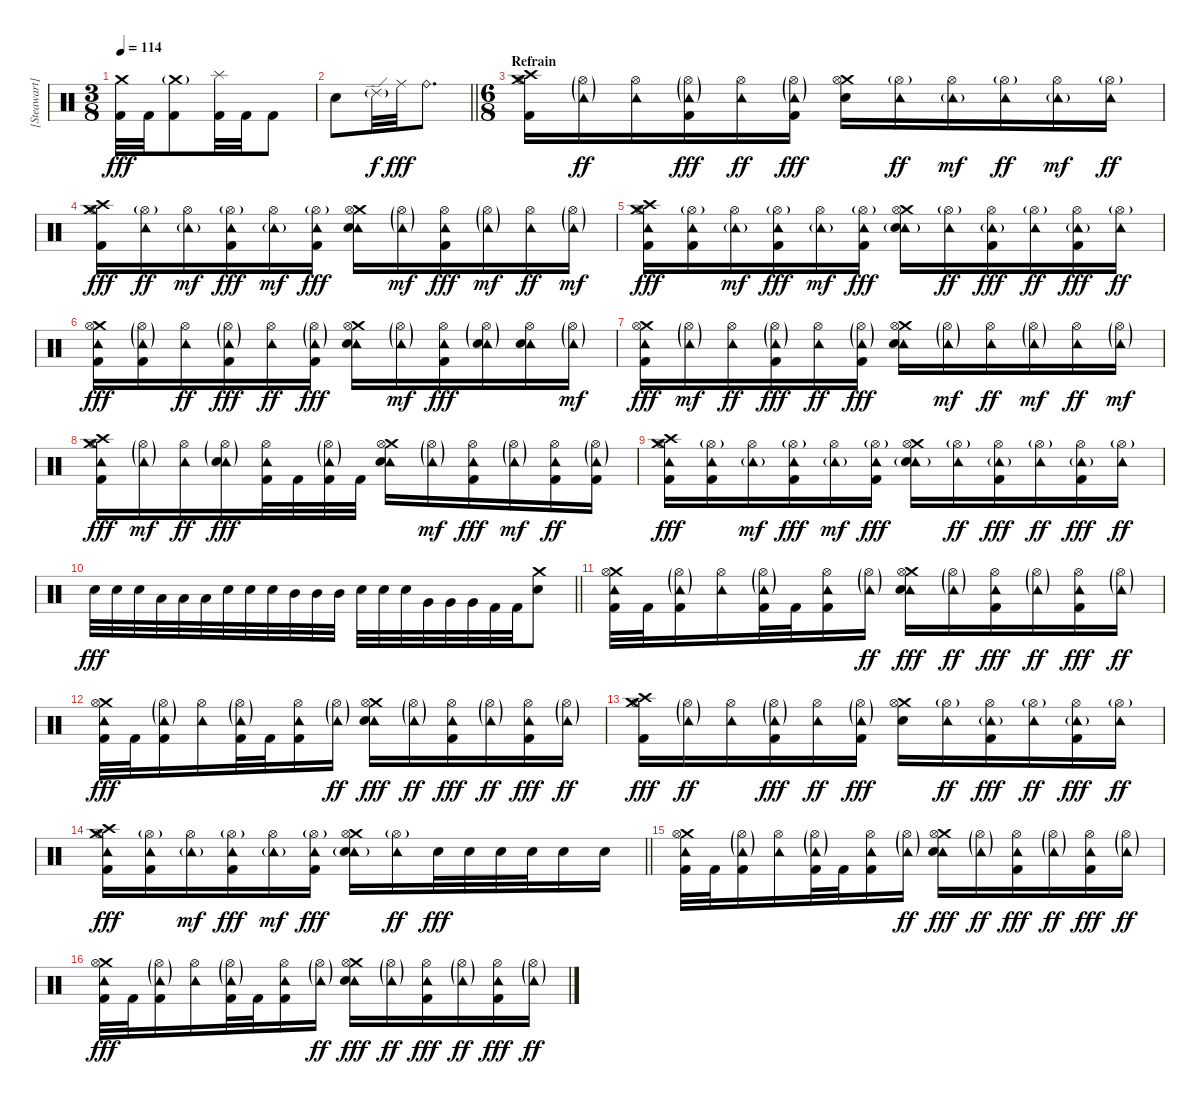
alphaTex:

\track ("[Steawart] Drums" "[Steawart]") {solo instrument percussion}
\staff {score}
\articulation defaults
\ts (3 8)
\tempo 114
\clef neutral
\ks c
("Crash medium (hit)" "Kick (hit) 2").32{dy fff} "Kick (hit) 2".32 ("Crash medium (hit)"{g} "Kick (hit) 2").8 ("Splash (hit)" "Kick (hit) 2").32 "Kick (hit) 2".32 "Kick (hit) 2".8 |
\barLineRight lightlight "Electric Snare (hit)".8 "Ride (edge) 2"{g}.32{dy f} "Ride (middle)".32{dy fff} "Ride (bell)".8{d}
|
\ts (6 8)
\section ("" "Refrain ")
("Crash medium (hit)" "Hi-Hat (open)" "Crash high (hit)" "Kick (hit) 2").16 ("Hi-Hat (open)"{g} "Tambourine (hit)"{g}).16{dy ff} ("Hi-Hat (open)" "Tambourine (hit)").16 ("Hi-Hat (open)"{g} "Tambourine (hit)"{g} "Kick (hit) 2").16{dy fff} ("Hi-Hat (open)" "Tambourine (hit)").16{dy ff} ("Hi-Hat (open)"{g} "Tambourine (hit)"{g} "Kick (hit) 2").16{dy fff} ("Crash medium (hit)" "Hi-Hat (open)" "Electric Snare (hit)").16 ("Hi-Hat (open)"{g} "Tambourine (hit)").16{dy ff} ("Hi-Hat (open)" "Tambourine (hit)"{g}).16{dy mf} ("Hi-Hat (open)"{g} "Tambourine (hit)").16{dy ff} ("Hi-Hat (open)" "Tambourine (hit)"{g}).16{dy mf} ("Hi-Hat (open)"{g} "Tambourine (hit)").16{dy ff} |
("Crash medium (hit)" "Hi-Hat (open)" "Crash high (hit)" "Kick (hit) 2").16{dy fff} ("Hi-Hat (open)"{g} "Tambourine (hit)").16{dy ff} ("Hi-Hat (open)" "Tambourine (hit)"{g}).16{dy mf} ("Hi-Hat (open)"{g} "Tambourine (hit)" "Kick (hit) 2").16{dy fff} ("Hi-Hat (open)" "Tambourine (hit)"{g}).16{dy mf} ("Hi-Hat (open)"{g} "Tambourine (hit)" "Kick (hit) 2").16{dy fff} ("Crash medium (hit)" "Hi-Hat (open)" "Tambourine (hit)" "Electric Snare (hit)").16 ("Hi-Hat (open)"{g} "Tambourine (hit)"{g}).16{dy mf} ("Hi-Hat (open)" "Tambourine (hit)" "Kick (hit) 2").16{dy fff} ("Hi-Hat (open)"{g} "Tambourine (hit)"{g}).16{dy mf} ("Hi-Hat (open)" "Tambourine (hit)").16{dy ff} ("Hi-Hat (open)"{g} "Tambourine (hit)"{g}).16{dy mf} |
("Crash medium (hit)" "Hi-Hat (open)" "Crash high (hit)" "Tambourine (hit)" "Kick (hit) 2").16{dy fff} ("Hi-Hat (open)"{g} "Tambourine (hit)" "Kick (hit) 2").16 ("Hi-Hat (open)" "Tambourine (hit)"{g}).16{dy mf} ("Hi-Hat (open)"{g} "Tambourine (hit)" "Kick (hit) 2").16{dy fff} ("Hi-Hat (open)" "Tambourine (hit)"{g}).16{dy mf} ("Hi-Hat (open)"{g} "Tambourine (hit)" "Kick (hit) 2").16{dy fff} ("Crash medium (hit)" "Hi-Hat (open)" "Tambourine (hit)"{g} "Electric Snare (hit)").16 ("Hi-Hat (open)"{g} "Tambourine (hit)").16{dy ff} ("Hi-Hat (open)" "Tambourine (hit)"{g} "Kick (hit) 2").16{dy fff} ("Hi-Hat (open)"{g} "Tambourine (hit)").16{dy ff} ("Hi-Hat (open)" "Tambourine (hit)"{g} "Kick (hit) 2").16{dy fff} ("Hi-Hat (open)"{g} "Tambourine (hit)").16{dy ff} |
("Crash medium (hit)" "Hi-Hat (open)" "Tambourine (hit)" "Kick (hit) 2").16{dy fff} ("Hi-Hat (open)"{g} "Tambourine (hit)"{g} "Kick (hit) 2").16 ("Hi-Hat (open)" "Tambourine (hit)").16{dy ff} ("Hi-Hat (open)"{g} "Tambourine (hit)"{g} "Kick (hit) 2").16{dy fff} ("Hi-Hat (open)" "Tambourine (hit)").16{dy ff} ("Hi-Hat (open)"{g} "Tambourine (hit)"{g} "Kick (hit) 2").16{dy fff} ("Crash medium (hit)" "Hi-Hat (open)" "Tambourine (hit)" "Electric Snare (hit)").16 ("Hi-Hat (open)"{g} "Tambourine (hit)"{g}).16{dy mf} ("Hi-Hat (open)" "Tambourine (hit)" "Kick (hit) 2").16{dy fff} ("Hi-Hat (open)"{g} "Tambourine (hit)"{g} "Electric Snare (hit)").16 ("Hi-Hat (open)" "Tambourine (hit)" "Electric Snare (hit)").16 ("Hi-Hat (open)"{g} "Tambourine (hit)"{g}).16{dy mf} |
("Crash medium (hit)" "Hi-Hat (open)" "Tambourine (hit)" "Kick (hit) 2").16{dy fff} ("Hi-Hat (open)"{g} "Tambourine (hit)"{g}).16{dy mf} ("Hi-Hat (open)" "Tambourine (hit)").16{dy ff} ("Hi-Hat (open)"{g} "Tambourine (hit)"{g} "Kick (hit) 2").16{dy fff} ("Hi-Hat (open)" "Tambourine (hit)").16{dy ff} ("Hi-Hat (open)"{g} "Tambourine (hit)"{g} "Kick (hit) 2").16{dy fff} ("Crash medium (hit)" "Hi-Hat (open)" "Tambourine (hit)" "Electric Snare (hit)").16 ("Hi-Hat (open)"{g} "Tambourine (hit)"{g}).16{dy mf} ("Hi-Hat (open)" "Tambourine (hit)").16{dy ff} ("Hi-Hat (open)"{g} "Tambourine (hit)"{g}).16{dy mf} ("Hi-Hat (open)" "Tambourine (hit)").16{dy ff} ("Hi-Hat (open)"{g} "Tambourine (hit)"{g}).16{dy mf} |
("Crash medium (hit)" "Hi-Hat (open)" "Crash high (hit)" "Tambourine (hit)" "Kick (hit) 2").16{dy fff} ("Hi-Hat (open)"{g} "Tambourine (hit)"{g}).16{dy mf} ("Hi-Hat (open)" "Tambourine (hit)").16{dy ff} ("Hi-Hat (open)"{g} "Tambourine (hit)"{g} "Electric Snare (hit)").16{dy fff} ("Hi-Hat (open)" "Tambourine (hit)" "Kick (hit) 2").32 "Kick (hit) 2".32 ("Hi-Hat (open)"{g} "Tambourine (hit)"{g} "Kick (hit) 2").32 "Kick (hit) 2".32 ("Crash medium (hit)" "Hi-Hat (open)" "Tambourine (hit)" "Electric Snare (hit)").16 ("Hi-Hat (open)"{g} "Tambourine (hit)"{g}).16{dy mf} ("Hi-Hat (open)" "Tambourine (hit)" "Kick (hit) 2").16{dy fff} ("Hi-Hat (open)"{g} "Tambourine (hit)"{g}).16{dy mf} ("Hi-Hat (open)" "Tambourine (hit)" "Kick (hit) 2").16{dy ff} ("Hi-Hat (open)"{g} "Tambourine (hit)"{g} "Kick (hit) 2").16 |
("Crash medium (hit)" "Hi-Hat (open)" "Crash high (hit)" "Tambourine (hit)" "Kick (hit) 2").16{dy fff} ("Hi-Hat (open)"{g} "Tambourine (hit)" "Kick (hit) 2").16 ("Hi-Hat (open)" "Tambourine (hit)"{g}).16{dy mf} ("Hi-Hat (open)"{g} "Tambourine (hit)" "Kick (hit) 2").16{dy fff} ("Hi-Hat (open)" "Tambourine (hit)"{g}).16{dy mf} ("Hi-Hat (open)"{g} "Tambourine (hit)" "Kick (hit) 2").16{dy fff} ("Crash medium (hit)" "Hi-Hat (open)" "Tambourine (hit)"{g} "Electric Snare (hit)").16 ("Hi-Hat (open)"{g} "Tambourine (hit)").16{dy ff} ("Hi-Hat (open)" "Tambourine (hit)"{g} "Kick (hit) 2").16{dy fff} ("Hi-Hat (open)"{g} "Tambourine (hit)").16{dy ff} ("Hi-Hat (open)" "Tambourine (hit)"{g} "Kick (hit) 2").16{dy fff} ("Hi-Hat (open)"{g} "Tambourine (hit)").16{dy ff} |
\barLineRight lightlight "Electric Snare (hit)".32{dy fff} "Electric Snare (hit)".32 "Electric Snare (hit)".32 "Low Tom (hit)".32 "Low Tom (hit)".32 "Low Tom (hit)".32 "Electric Snare (hit)".32 "Electric Snare (hit)".32 "Electric Snare (hit)".32 "Mid Tom (hit)".32 "Mid Tom (hit)".32 "Mid Tom (hit)".32 "Electric Snare (hit)".32 "Electric Snare (hit)".32 "Electric Snare (hit)".32 "Very Low Tom (hit)".32 "Very Low Tom (hit)".32 "Very Low Tom (hit)".32 "Kick (hit) 2".32 "Kick (hit) 2".32
("Crash medium (hit)" "Electric Snare (hit)").8 |
("Crash medium (hit)" "Hi-Hat (open)" "Tambourine (hit)" "Kick (hit) 2").32 "Kick (hit) 2".32 ("Hi-Hat (open)"{g} "Tambourine (hit)"{g} "Kick (hit) 2").16 ("Hi-Hat (open)" "Tambourine (hit)").16 ("Hi-Hat (open)"{g} "Tambourine (hit)"{g} "Kick (hit) 2").32 "Kick (hit) 2".32 ("Hi-Hat (open)" "Tambourine (hit)" "Kick (hit) 2").16 ("Hi-Hat (open)"{g} "Tambourine (hit)"{g}).16{dy ff} ("Crash medium (hit)" "Hi-Hat (open)" "Tambourine (hit)" "Electric Snare (hit)").16{dy fff} ("Hi-Hat (open)"{g} "Tambourine (hit)"{g}).16{dy ff} ("Hi-Hat (open)" "Tambourine (hit)" "Kick (hit) 2").16{dy fff} ("Hi-Hat (open)"{g} "Tambourine (hit)"{g}).16{dy ff} ("Hi-Hat (open)" "Tambourine (hit)" "Kick (hit) 2").16{dy fff} ("Hi-Hat (open)"{g} "Tambourine (hit)"{g}).16{dy ff} |
("Crash medium (hit)" "Hi-Hat (open)" "Tambourine (hit)" "Kick (hit) 2").32{dy fff} "Kick (hit) 2".32 ("Hi-Hat (open)"{g} "Tambourine (hit)"{g} "Kick (hit) 2").16 ("Hi-Hat (open)" "Tambourine (hit)").16 ("Hi-Hat (open)"{g} "Tambourine (hit)"{g} "Kick (hit) 2").32 "Kick (hit) 2".32 ("Hi-Hat (open)" "Tambourine (hit)" "Kick (hit) 2").16 ("Hi-Hat (open)"{g} "Tambourine (hit)"{g}).16{dy ff} ("Crash medium (hit)" "Hi-Hat (open)" "Tambourine (hit)" "Electric Snare (hit)").16{dy fff} ("Hi-Hat (open)"{g} "Tambourine (hit)"{g}).16{dy ff} ("Hi-Hat (open)" "Tambourine (hit)" "Kick (hit) 2").16{dy fff} ("Hi-Hat (open)"{g} "Tambourine (hit)"{g}).16{dy ff} ("Hi-Hat (open)" "Tambourine (hit)" "Kick (hit) 2").16{dy fff} ("Hi-Hat (open)"{g} "Tambourine (hit)"{g}).16{dy ff} |
("Crash medium (hit)" "Hi-Hat (open)" "Crash high (hit)" "Kick (hit) 2").16{dy fff} ("Hi-Hat (open)"{g} "Tambourine (hit)"{g}).16{dy ff} ("Hi-Hat (open)" "Tambourine (hit)").16 ("Hi-Hat (open)"{g} "Tambourine (hit)"{g} "Kick (hit) 2").16{dy fff} ("Hi-Hat (open)" "Tambourine (hit)").16{dy ff} ("Hi-Hat (open)"{g} "Tambourine (hit)"{g} "Kick (hit) 2").16{dy fff} ("Crash medium (hit)" "Hi-Hat (open)" "Electric Snare (hit)").16 ("Hi-Hat (open)"{g} "Tambourine (hit)").16{dy ff} ("Hi-Hat (open)" "Tambourine (hit)"{g} "Kick (hit) 2").16{dy fff} ("Hi-Hat (open)"{g} "Tambourine (hit)").16{dy ff} ("Hi-Hat (open)" "Tambourine (hit)"{g} "Kick (hit) 2").16{dy fff} ("Hi-Hat (open)"{g} "Tambourine (hit)").16{dy ff} |
\barLineRight lightlight
("Crash medium (hit)" "Hi-Hat (open)" "Crash high (hit)" "Tambourine (hit)" "Kick (hit) 2").16{dy fff} ("Hi-Hat (open)"{g} "Tambourine (hit)" "Kick (hit) 2").16 ("Hi-Hat (open)" "Tambourine (hit)"{g}).16{dy mf} ("Hi-Hat (open)"{g} "Tambourine (hit)" "Kick (hit) 2").16{dy fff} ("Hi-Hat (open)" "Tambourine (hit)"{g}).16{dy mf} ("Hi-Hat (open)"{g} "Tambourine (hit)" "Kick (hit) 2").16{dy fff} ("Crash medium (hit)" "Hi-Hat (open)" "Tambourine (hit)"{g} "Electric Snare (hit)").16 ("Hi-Hat (open)"{g} "Tambourine (hit)").16{dy ff} "Electric Snare (hit)".32{dy fff} "Electric Snare (hit)".32 "Electric Snare (hit)".32 "Electric Snare (hit)".32 "Electric Snare (hit)".16 "Electric Snare (hit)".16 |
("Crash medium (hit)" "Hi-Hat (open)" "Tambourine (hit)" "Kick (hit) 2").32 "Kick (hit) 2".32 ("Hi-Hat (open)"{g} "Tambourine (hit)"{g} "Kick (hit) 2").16 ("Hi-Hat (open)" "Tambourine (hit)").16 ("Hi-Hat (open)"{g} "Tambourine (hit)"{g} "Kick (hit) 2").32 "Kick (hit) 2".32 ("Hi-Hat (open)" "Tambourine (hit)" "Kick (hit) 2").16 ("Hi-Hat (open)"{g} "Tambourine (hit)"{g}).16{dy ff} ("Crash medium (hit)" "Hi-Hat (open)" "Tambourine (hit)" "Electric Snare (hit)").16{dy fff} ("Hi-Hat (open)"{g} "Tambourine (hit)"{g}).16{dy ff} ("Hi-Hat (open)" "Tambourine (hit)" "Kick (hit) 2").16{dy fff} ("Hi-Hat (open)"{g} "Tambourine (hit)"{g}).16{dy ff} ("Hi-Hat (open)" "Tambourine (hit)" "Kick (hit) 2").16{dy fff} ("Hi-Hat (open)"{g} "Tambourine (hit)"{g}).16{dy ff} |
("Crash medium (hit)" "Hi-Hat (open)" "Tambourine (hit)" "Kick (hit) 2").32{dy fff} "Kick (hit) 2".32 ("Hi-Hat (open)"{g} "Tambourine (hit)"{g} "Kick (hit) 2").16 ("Hi-Hat (open)" "Tambourine (hit)").16 ("Hi-Hat (open)"{g} "Tambourine (hit)"{g} "Kick (hit) 2").32 "Kick (hit) 2".32 ("Hi-Hat (open)" "Tambourine (hit)" "Kick (hit) 2").16 ("Hi-Hat (open)"{g} "Tambourine (hit)"{g}).16{dy ff} ("Crash medium (hit)" "Hi-Hat (open)" "Tambourine (hit)" "Electric Snare (hit)").16{dy fff} ("Hi-Hat (open)"{g} "Tambourine (hit)"{g}).16{dy ff} ("Hi-Hat (open)" "Tambourine (hit)" "Kick (hit) 2").16{dy fff} ("Hi-Hat (open)"{g} "Tambourine (hit)"{g}).16{dy ff} ("Hi-Hat (open)" "Tambourine (hit)" "Kick (hit) 2").16{dy fff} ("Hi-Hat (open)"{g} "Tambourine (hit)"{g}).16{dy ff}
